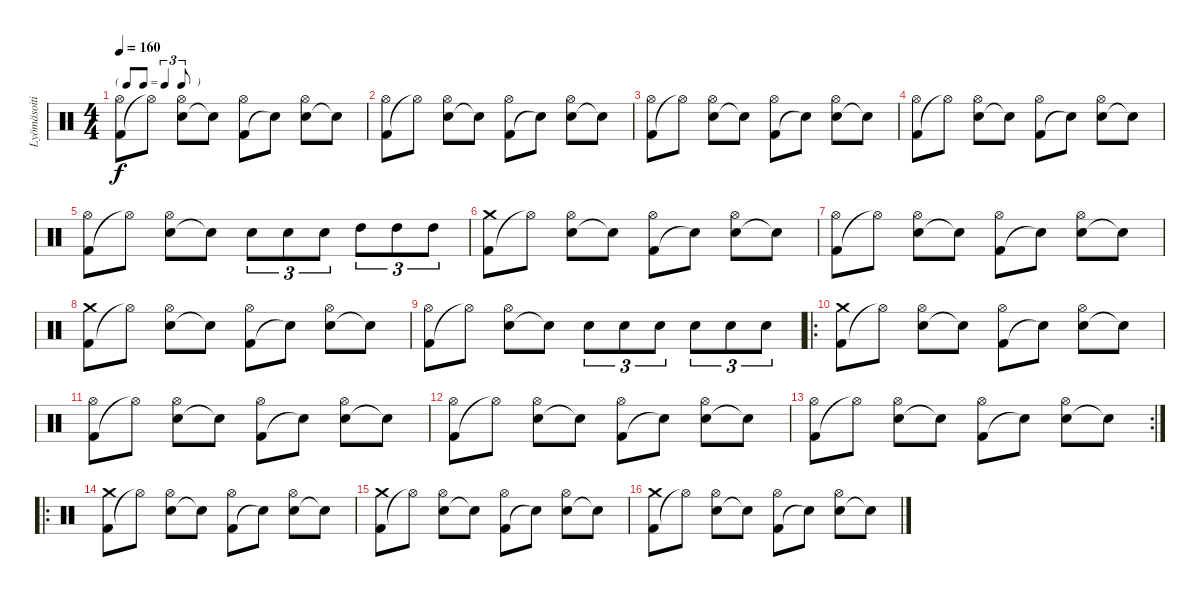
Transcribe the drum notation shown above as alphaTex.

\track ("Lyömäsoitin" "Lyömäsoiti") {instrument percussion}
\staff {score}
\articulation defaults
\ts (4 4)
\tf triplet8th
\tempo 160
\clef neutral
\ks c
("Kick (hit) 2" "Hi-Hat (open)").8{dy f} "Hi-Hat (open)"{t}.8 ("Electric Snare (hit)" "Hi-Hat (open)").8 "Snare (hit)"{t}.8 ("Kick (hit) 2" "Hi-Hat (open)").8 "Snare (hit)"{t}.8 ("Electric Snare (hit)" "Hi-Hat (open)").8 "Snare (hit)"{t}.8 |
("Kick (hit) 2" "Hi-Hat (open)").8 "Hi-Hat (open)"{t}.8 ("Electric Snare (hit)" "Hi-Hat (open)").8 "Snare (hit)"{t}.8 ("Kick (hit) 2" "Hi-Hat (open)").8 "Snare (hit)"{t}.8 ("Electric Snare (hit)" "Hi-Hat (open)").8 "Snare (hit)"{t}.8 |
("Kick (hit) 2" "Hi-Hat (open)").8 "Hi-Hat (open)"{t}.8 ("Electric Snare (hit)" "Hi-Hat (open)").8 "Snare (hit)"{t}.8 ("Kick (hit) 2" "Hi-Hat (open)").8 "Snare (hit)"{t}.8 ("Electric Snare (hit)" "Hi-Hat (open)").8 "Snare (hit)"{t}.8 |
("Kick (hit) 2" "Hi-Hat (open)").8 "Hi-Hat (open)"{t}.8 ("Electric Snare (hit)" "Hi-Hat (open)").8 "Snare (hit)"{t}.8 ("Kick (hit) 2" "Hi-Hat (open)").8 "Snare (hit)"{t}.8 ("Electric Snare (hit)" "Hi-Hat (open)").8 "Snare (hit)"{t}.8 |
("Kick (hit) 2" "Hi-Hat (open)").8 "Hi-Hat (open)"{t}.8 ("Electric Snare (hit)" "Hi-Hat (open)").8 "Snare (hit)"{t}.8 "Electric Snare (hit)".8{tu (3 2)} "Electric Snare (hit)".8{tu (3 2)} "Electric Snare (hit)".8{tu (3 2)} "High Tom (hit)".8{tu (3 2)} "High Tom (hit)".8{tu (3 2)} "High Tom (hit)".8{tu (3 2)} |
("Kick (hit) 2" "Crash medium (hit)").8 "Hi-Hat (open)"{t}.8 ("Electric Snare (hit)" "Hi-Hat (open)").8 "Snare (hit)"{t}.8 ("Kick (hit) 2" "Hi-Hat (open)").8 "Snare (hit)"{t}.8 ("Electric Snare (hit)" "Hi-Hat (open)").8 "Snare (hit)"{t}.8 |
("Kick (hit) 2" "Hi-Hat (open)").8 "Hi-Hat (open)"{t}.8 ("Electric Snare (hit)" "Hi-Hat (open)").8 "Snare (hit)"{t}.8 ("Kick (hit) 2" "Hi-Hat (open)").8 "Snare (hit)"{t}.8 ("Electric Snare (hit)" "Hi-Hat (open)").8 "Snare (hit)"{t}.8 |
("Kick (hit) 2" "Crash medium (hit)").8 "Hi-Hat (open)"{t}.8 ("Electric Snare (hit)" "Hi-Hat (open)").8 "Snare (hit)"{t}.8 ("Kick (hit) 2" "Hi-Hat (open)").8 "Snare (hit)"{t}.8 ("Electric Snare (hit)" "Hi-Hat (open)").8 "Snare (hit)"{t}.8 |
("Kick (hit) 2" "Hi-Hat (open)").8 "Hi-Hat (open)"{t}.8 ("Electric Snare (hit)" "Hi-Hat (open)").8 "Snare (hit)"{t}.8 "Electric Snare (hit)".8{tu (3 2)} "Electric Snare (hit)".8{tu (3 2)} "Electric Snare (hit)".8{tu (3 2)} "Electric Snare (hit)".8{tu (3 2)} "Electric Snare (hit)".8{tu (3 2)} "Electric Snare (hit)".8{tu (3 2)} |
\ro
("Kick (hit) 2" "Crash medium (hit)").8 "Hi-Hat (open)"{t}.8 ("Electric Snare (hit)" "Hi-Hat (open)").8 "Snare (hit)"{t}.8 ("Kick (hit) 2" "Hi-Hat (open)").8 "Snare (hit)"{t}.8 ("Electric Snare (hit)" "Hi-Hat (open)").8 "Snare (hit)"{t}.8 |
("Kick (hit) 2" "Hi-Hat (open)").8 "Hi-Hat (open)"{t}.8 ("Electric Snare (hit)" "Hi-Hat (open)").8 "Snare (hit)"{t}.8 ("Kick (hit) 2" "Hi-Hat (open)").8 "Snare (hit)"{t}.8 ("Electric Snare (hit)" "Hi-Hat (open)").8 "Snare (hit)"{t}.8 |
("Kick (hit) 2" "Hi-Hat (open)").8 "Hi-Hat (open)"{t}.8 ("Electric Snare (hit)" "Hi-Hat (open)").8 "Snare (hit)"{t}.8 ("Kick (hit) 2" "Hi-Hat (open)").8 "Snare (hit)"{t}.8 ("Electric Snare (hit)" "Hi-Hat (open)").8 "Snare (hit)"{t}.8 |
\rc 2
("Kick (hit) 2" "Hi-Hat (open)").8 "Hi-Hat (open)"{t}.8 ("Electric Snare (hit)" "Hi-Hat (open)").8 "Snare (hit)"{t}.8 ("Kick (hit) 2" "Hi-Hat (open)").8 "Snare (hit)"{t}.8 ("Electric Snare (hit)" "Hi-Hat (open)").8 "Snare (hit)"{t}.8 |
\ro
("Kick (hit) 2" "Crash medium (hit)").8 "Hi-Hat (open)"{t}.8 ("Electric Snare (hit)" "Hi-Hat (open)").8 "Snare (hit)"{t}.8 ("Kick (hit) 2" "Hi-Hat (open)").8 "Snare (hit)"{t}.8 ("Electric Snare (hit)" "Hi-Hat (open)").8 "Snare (hit)"{t}.8 |
("Kick (hit) 2" "Crash medium (hit)").8 "Hi-Hat (open)"{t}.8 ("Electric Snare (hit)" "Hi-Hat (open)").8 "Snare (hit)"{t}.8 ("Kick (hit) 2" "Hi-Hat (open)").8 "Snare (hit)"{t}.8 ("Electric Snare (hit)" "Hi-Hat (open)").8 "Snare (hit)"{t}.8 |
("Kick (hit) 2" "Crash medium (hit)").8 "Hi-Hat (open)"{t}.8 ("Electric Snare (hit)" "Hi-Hat (open)").8 "Snare (hit)"{t}.8 ("Kick (hit) 2" "Hi-Hat (open)").8 "Snare (hit)"{t}.8 ("Electric Snare (hit)" "Hi-Hat (open)").8 "Snare (hit)"{t}.8
